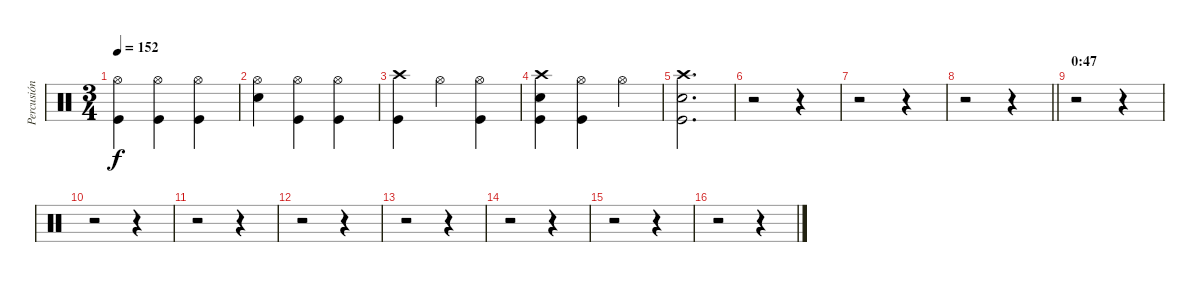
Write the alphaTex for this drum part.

\track ("Percusión" "Percusión") {instrument percussion}
\staff {score}
\articulation defaults
\ts (3 4)
\tempo 152
\clef neutral
\ks c
("Hi-Hat (open)" "Kick (hit)").4{dy f} ("Hi-Hat (open)" "Kick (hit)").4 ("Hi-Hat (open)" "Kick (hit)").4 |
("Hi-Hat (open)" "Snare (hit) 2").4 ("Hi-Hat (open)" "Kick (hit)").4 ("Hi-Hat (open)" "Kick (hit)").4 |
("Crash high (hit)" "Kick (hit)").4 "Hi-Hat (open)".4 ("Hi-Hat (open)" "Kick (hit)").4 |
("Crash high (hit)" "Snare (hit) 2" "Kick (hit)").4 ("Hi-Hat (open)" "Kick (hit)").4 "Hi-Hat (open)".4 |
("Crash high (hit)" "Snare (hit) 2" "Kick (hit)").2{d} |
r.2 r.4 |
r.2 r.4 |
\barLineRight lightlight
r.2 r.4 |
\section ("" "0:47")
r.2 r.4 |
r.2 r.4 |
r.2 r.4 |
r.2 r.4 |
r.2 r.4 |
r.2 r.4 |
r.2 r.4 |
r.2 r.4
